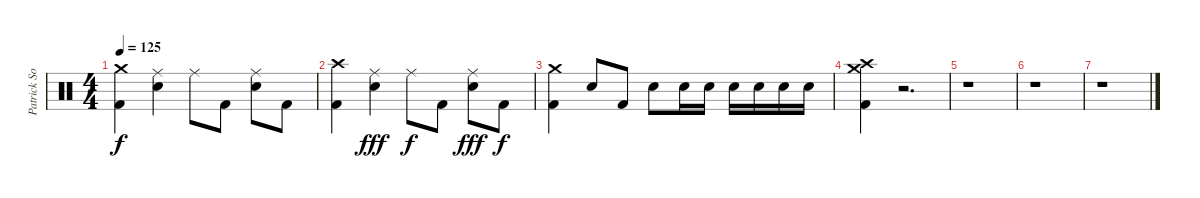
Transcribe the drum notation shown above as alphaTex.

\track ("Patrick Soria" "Patrick So") {instrument percussion}
\staff {score}
\articulation defaults
\ts (4 4)
\tempo 125
\clef neutral
\ks c
("Crash medium (hit)" "Kick (hit) 2").4{dy f} ("Ride (middle)" "Snare (hit) 2").4 "Ride (middle)".8 "Kick (hit) 2".8 ("Ride (middle)" "Snare (hit) 2").8 "Kick (hit) 2".8 |
("Crash high (hit)" "Kick (hit) 2").4 ("Ride (middle)" "Snare (hit) 2").4{dy fff} "Ride (middle)".8{dy f} "Kick (hit) 2".8 ("Ride (middle)" "Snare (hit) 2").8{dy fff} "Kick (hit) 2".8{dy f} |
("Crash medium (hit)" "Kick (hit) 2").4 "Snare (hit) 2".8 "Kick (hit) 2".8 "Snare (hit) 2".8 "Snare (hit) 2".16 "Snare (hit) 2".16 "Snare (hit) 2".16 "Snare (hit) 2".16 "Snare (hit) 2".16 "Snare (hit) 2".16 |
("Crash high (hit)" "Crash medium (hit)" "Kick (hit) 2").4 r.2{d} |
r.1 |
r.1 |
r.1
